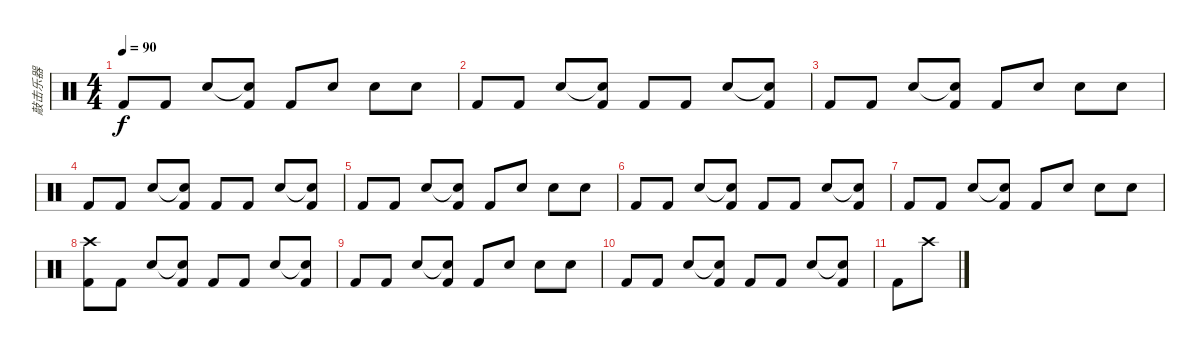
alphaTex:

\track ("敲击乐器" "敲击乐器") {instrument percussion}
\staff {score}
\articulation defaults
\ts (4 4)
\tempo 90
\clef neutral
\ks c "Kick (hit) 2".8{dy f} "Kick (hit) 2".8 "Snare (hit) 2".8
("Snare (hit)"{t} "Kick (hit) 2").8 "Kick (hit) 2".8 "Snare (hit) 2".8 "Snare (hit) 2".8 "Snare (hit) 2".8 |
"Kick (hit) 2".8 "Kick (hit) 2".8 "Snare (hit) 2".8 ("Snare (hit)"{t} "Kick (hit) 2").8 "Kick (hit) 2".8 "Kick (hit) 2".8 "Snare (hit) 2".8 ("Snare (hit)"{t} "Kick (hit) 2").8 |
"Kick (hit) 2".8 "Kick (hit) 2".8 "Snare (hit) 2".8 ("Snare (hit)"{t} "Kick (hit) 2").8 "Kick (hit) 2".8 "Snare (hit) 2".8 "Snare (hit) 2".8 "Snare (hit) 2".8 |
"Kick (hit) 2".8 "Kick (hit) 2".8 "Snare (hit) 2".8 ("Snare (hit)"{t} "Kick (hit) 2").8 "Kick (hit) 2".8 "Kick (hit) 2".8 "Snare (hit) 2".8 ("Snare (hit)"{t} "Kick (hit) 2").8 |
"Kick (hit) 2".8 "Kick (hit) 2".8 "Snare (hit) 2".8 ("Snare (hit)"{t} "Kick (hit) 2").8 "Kick (hit) 2".8 "Snare (hit) 2".8 "Snare (hit) 2".8 "Snare (hit) 2".8 |
"Kick (hit) 2".8 "Kick (hit) 2".8 "Snare (hit) 2".8 ("Snare (hit)"{t} "Kick (hit) 2").8 "Kick (hit) 2".8 "Kick (hit) 2".8 "Snare (hit) 2".8 ("Snare (hit)"{t} "Kick (hit) 2").8 |
"Kick (hit) 2".8 "Kick (hit) 2".8 "Snare (hit) 2".8 ("Snare (hit)"{t} "Kick (hit) 2").8 "Kick (hit) 2".8 "Snare (hit) 2".8 "Snare (hit) 2".8 "Snare (hit) 2".8 |
("Crash high (hit)" "Kick (hit) 2").8 "Kick (hit) 2".8 "Snare (hit) 2".8 ("Snare (hit)"{t} "Kick (hit) 2").8 "Kick (hit) 2".8 "Kick (hit) 2".8 "Snare (hit) 2".8 ("Snare (hit)"{t} "Kick (hit) 2").8 |
"Kick (hit) 2".8 "Kick (hit) 2".8 "Snare (hit) 2".8 ("Snare (hit)"{t} "Kick (hit) 2").8 "Kick (hit) 2".8 "Snare (hit) 2".8 "Snare (hit) 2".8 "Snare (hit) 2".8 |
"Kick (hit) 2".8 "Kick (hit) 2".8 "Snare (hit) 2".8 ("Snare (hit)"{t} "Kick (hit) 2").8 "Kick (hit) 2".8 "Kick (hit) 2".8 "Snare (hit) 2".8 ("Snare (hit)"{t} "Kick (hit) 2").8 |
"Kick (hit) 2".8 "Crash high (hit)".8
